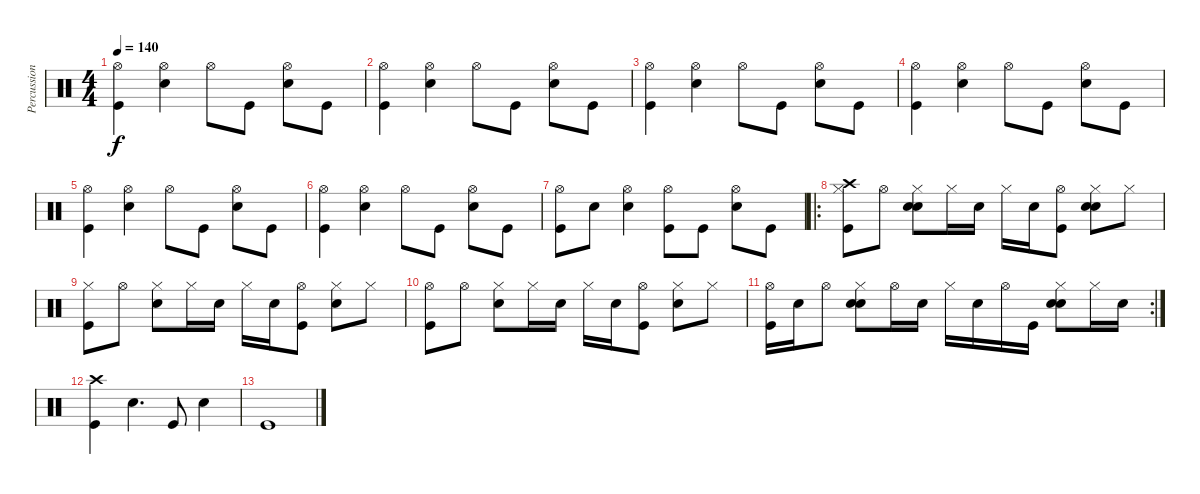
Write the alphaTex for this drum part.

\track ("Percussion" "Percussion") {instrument percussion}
\staff {score}
\articulation defaults
\ts (4 4)
\tempo 140
\clef neutral
\ks c
("Hi-Hat (open)" "Kick (hit)").4{dy f} ("Hi-Hat (open)" "Snare (hit) 2").4 "Hi-Hat (open)".8 "Kick (hit)".8 ("Hi-Hat (open)" "Snare (hit) 2").8 "Kick (hit)".8 |
("Hi-Hat (open)" "Kick (hit)").4 ("Hi-Hat (open)" "Snare (hit) 2").4 "Hi-Hat (open)".8 "Kick (hit)".8 ("Hi-Hat (open)" "Snare (hit) 2").8 "Kick (hit)".8 |
("Hi-Hat (open)" "Kick (hit)").4 ("Hi-Hat (open)" "Snare (hit) 2").4 "Hi-Hat (open)".8 "Kick (hit)".8 ("Hi-Hat (open)" "Snare (hit) 2").8 "Kick (hit)".8 |
("Hi-Hat (open)" "Kick (hit)").4 ("Hi-Hat (open)" "Snare (hit) 2").4 "Hi-Hat (open)".8 "Kick (hit)".8 ("Hi-Hat (open)" "Snare (hit) 2").8 "Kick (hit)".8 |
("Hi-Hat (open)" "Kick (hit)").4 ("Hi-Hat (open)" "Snare (hit) 2").4 "Hi-Hat (open)".8 "Kick (hit)".8 ("Hi-Hat (open)" "Snare (hit) 2").8 "Kick (hit)".8 |
("Hi-Hat (open)" "Kick (hit)").4 ("Hi-Hat (open)" "Snare (hit) 2").4 "Hi-Hat (open)".8 "Kick (hit)".8 ("Hi-Hat (open)" "Snare (hit) 2").8 "Kick (hit)".8 |
("Hi-Hat (open)" "Kick (hit)").8 "Snare (hit) 2".8 ("Hi-Hat (open)" "Snare (hit) 2").4 ("Hi-Hat (open)" "Kick (hit)").8 "Kick (hit)".8 ("Hi-Hat (open)" "Snare (hit) 2").8 "Kick (hit)".8 |
\ro
("Hi-Hat (closed)" "Kick (hit)" "Crash high (hit)").8 "Hi-Hat (open)".8 ("Hi-Hat (closed)" "Hand Clap (hit)" "Snare (hit) 2").8 "Hi-Hat (closed)".16 "Snare (hit) 2".16 "Hi-Hat (closed)".16 "Snare (hit) 2".16 ("Hi-Hat (open)" "Kick (hit)").8 ("Hi-Hat (closed)" "Hand Clap (hit)" "Snare (hit) 2").8 "Hi-Hat (closed)".8 |
("Hi-Hat (closed)" "Kick (hit)").8 "Hi-Hat (open)".8 ("Hi-Hat (closed)" "Snare (hit) 2").8 "Hi-Hat (closed)".16 "Snare (hit) 2".16 "Hi-Hat (closed)".16 "Snare (hit) 2".16 ("Hi-Hat (open)" "Kick (hit)").8 ("Hi-Hat (closed)" "Snare (hit) 2").8 "Hi-Hat (closed)".8 |
("Hi-Hat (open)" "Kick (hit)").8 "Hi-Hat (open)".8 ("Hi-Hat (closed)" "Snare (hit) 2").8 "Hi-Hat (closed)".16 "Snare (hit) 2".16 "Hi-Hat (closed)".16 "Snare (hit) 2".16 ("Hi-Hat (open)" "Kick (hit)").8 ("Hi-Hat (closed)" "Snare (hit) 2").8 "Hi-Hat (closed)".8 |
\rc 2
("Hi-Hat (open)" "Kick (hit)").16 "Snare (hit) 2".16 "Hi-Hat (open)".8 ("Hi-Hat (closed)" "Hand Clap (hit)" "Snare (hit) 2").8 "Hi-Hat (open)".16 "Snare (hit) 2".16 "Hi-Hat (closed)".16 "Snare (hit) 2".16 "Hi-Hat (open)".16 "Kick (hit)".16 ("Hi-Hat (closed)" "Hand Clap (hit)" "Snare (hit) 2").8 "Hi-Hat (closed)".16 "Snare (hit) 2".16 |
("Crash high (hit)" "Kick (hit)").4 "Snare (hit) 2".4{d} "Kick (hit)".8 "Snare (hit) 2".4 |
"Kick (hit)".1
